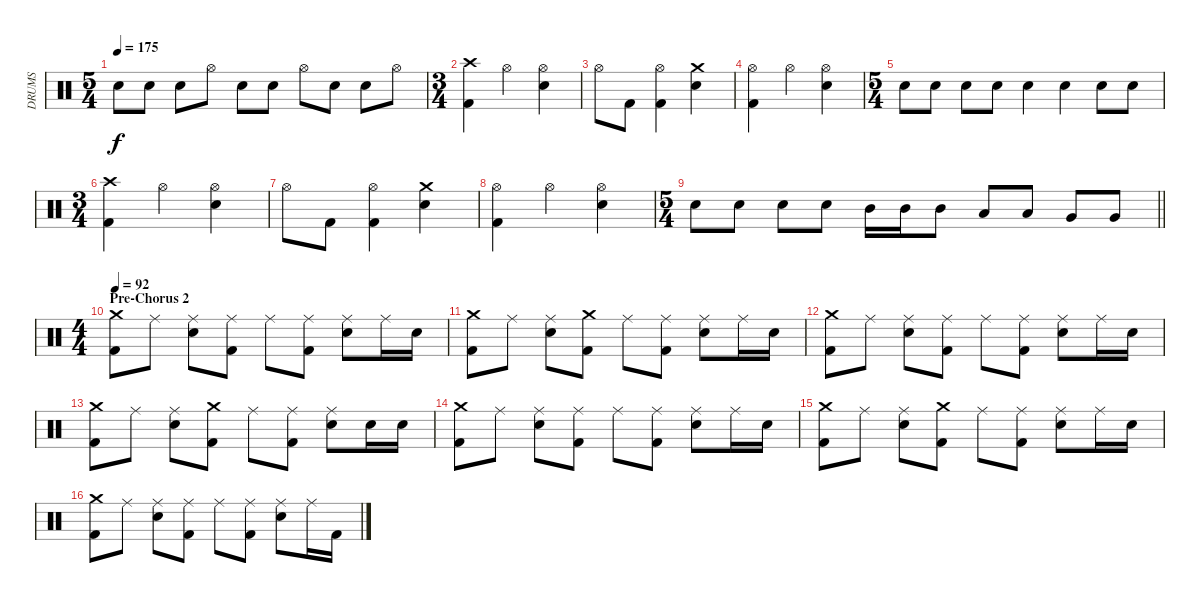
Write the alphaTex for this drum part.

\track ("DRUMS" "DRUMS") {instrument percussion}
\staff {score}
\articulation defaults
\ts (5 4)
\tempo 175
\clef neutral
\ks c "Snare (hit) 2".8{dy f} "Snare (hit) 2".8 "Snare (hit) 2".8 "Hi-Hat (open)".8 "Snare (hit) 2".8 "Snare (hit) 2".8 "Hi-Hat (open)".8 "Snare (hit) 2".8 "Snare (hit) 2".8 "Hi-Hat (open)".8
|
\ts (3 4)
("Crash high (hit)" "Kick (hit) 2").4 "Hi-Hat (open)".4 ("Hi-Hat (open)" "Snare (hit) 2").4 |
"Hi-Hat (open)".8 "Kick (hit) 2".8 ("Hi-Hat (open)" "Kick (hit) 2").4 ("Crash medium (hit)" "Snare (hit) 2").4 |
("Hi-Hat (open)" "Kick (hit) 2").4 "Hi-Hat (open)".4 ("Hi-Hat (open)" "Snare (hit) 2").4 |
\ts (5 4)
"Snare (hit) 2".8 "Snare (hit) 2".8 "Snare (hit) 2".8 "Snare (hit) 2".8 "Snare (hit) 2".4 "Snare (hit) 2".4 "Snare (hit) 2".8 "Snare (hit) 2".8 |
\ts (3 4)
("Crash high (hit)" "Kick (hit) 2").4 "Hi-Hat (open)".4 ("Hi-Hat (open)" "Snare (hit) 2").4 |
"Hi-Hat (open)".8 "Kick (hit) 2".8 ("Hi-Hat (open)" "Kick (hit) 2").4 ("Crash medium (hit)" "Snare (hit) 2").4 |
("Hi-Hat (open)" "Kick (hit) 2").4 "Hi-Hat (open)".4 ("Hi-Hat (open)" "Snare (hit) 2").4 |
\ts (5 4)
\barLineRight lightlight "Snare (hit) 2".8 "Snare (hit) 2".8 "Snare (hit) 2".8 "Snare (hit) 2".8 "Mid Tom (hit)".16 "Mid Tom (hit)".16 "Mid Tom (hit)".8 "Low Tom (hit)".8 "Low Tom (hit)".8 "Very Low Tom (hit)".8 "Very Low Tom (hit)".8
|
\ts (4 4)
\section ("" "Pre-Chorus 2")
\tempo 92
("Crash medium (hit)" "Kick (hit) 2").8 "Ride (middle)".8 ("Ride (middle)" "Snare (hit) 2").8 ("Ride (middle)" "Kick (hit) 2").8 "Ride (middle)".8 ("Ride (middle)" "Kick (hit) 2").8 ("Ride (middle)" "Snare (hit) 2").8 "Ride (middle)".16 "Snare (hit) 2".16 |
("Crash medium (hit)" "Kick (hit) 2").8 "Ride (middle)".8 ("Ride (middle)" "Snare (hit) 2").8 ("Crash medium (hit)" "Kick (hit) 2").8 "Ride (middle)".8 ("Ride (middle)" "Kick (hit) 2").8 ("Ride (middle)" "Snare (hit) 2").8 "Ride (middle)".16 "Snare (hit) 2".16 |
("Crash medium (hit)" "Kick (hit) 2").8 "Ride (middle)".8 ("Ride (middle)" "Snare (hit) 2").8 ("Ride (middle)" "Kick (hit) 2").8 "Ride (middle)".8 ("Ride (middle)" "Kick (hit) 2").8 ("Ride (middle)" "Snare (hit) 2").8 "Ride (middle)".16 "Snare (hit) 2".16 |
("Crash medium (hit)" "Kick (hit) 2").8 "Ride (middle)".8 ("Ride (middle)" "Snare (hit) 2").8 ("Crash medium (hit)" "Kick (hit) 2").8 "Ride (middle)".8 ("Ride (middle)" "Kick (hit) 2").8 ("Ride (middle)" "Snare (hit) 2").8 "Snare (hit) 2".16 "Snare (hit) 2".16 |
("Crash medium (hit)" "Kick (hit) 2").8 "Ride (middle)".8 ("Ride (middle)" "Snare (hit) 2").8 ("Ride (middle)" "Kick (hit) 2").8 "Ride (middle)".8 ("Ride (middle)" "Kick (hit) 2").8 ("Ride (middle)" "Snare (hit) 2").8 "Ride (middle)".16 "Snare (hit) 2".16 |
("Crash medium (hit)" "Kick (hit) 2").8 "Ride (middle)".8 ("Ride (middle)" "Snare (hit) 2").8 ("Crash medium (hit)" "Kick (hit) 2").8 "Ride (middle)".8 ("Ride (middle)" "Kick (hit) 2").8 ("Ride (middle)" "Snare (hit) 2").8 "Ride (middle)".16 "Snare (hit) 2".16 |
("Crash medium (hit)" "Kick (hit) 2").8 "Ride (middle)".8 ("Ride (middle)" "Snare (hit) 2").8 ("Ride (middle)" "Kick (hit) 2").8 "Ride (middle)".8 ("Ride (middle)" "Kick (hit) 2").8 ("Ride (middle)" "Snare (hit) 2").8 "Ride (middle)".16 "Kick (hit) 2".16
